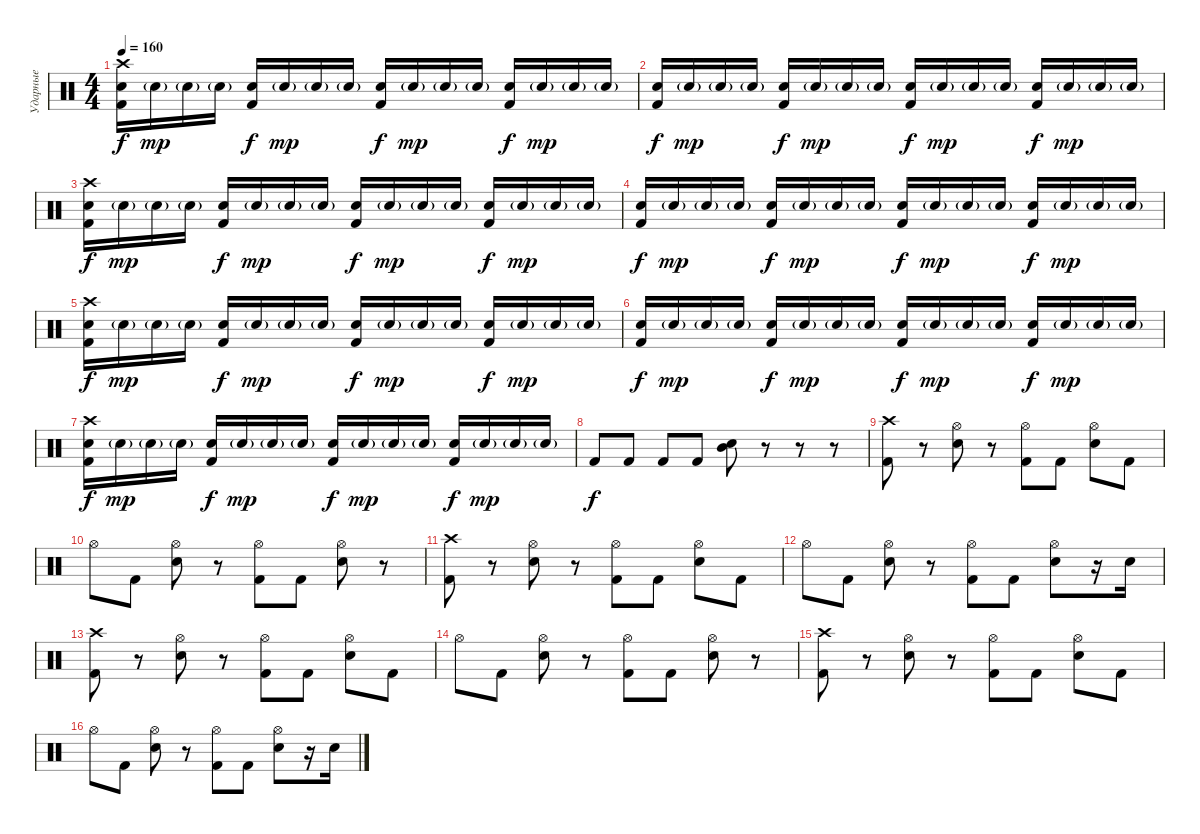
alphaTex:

\track ("Ударные" "Ударные") {instrument percussion}
\staff {score}
\articulation defaults
\ts (4 4)
\tempo 160
\clef neutral
\ks c
("Crash high (hit)" "Snare (hit) 2" "Kick (hit) 2").16{dy f} "Snare (hit) 2"{g}.16{dy mp} "Snare (hit) 2"{g}.16 "Snare (hit) 2"{g}.16 ("Snare (hit) 2" "Kick (hit) 2").16{dy f} "Snare (hit) 2"{g}.16{dy mp} "Snare (hit) 2"{g}.16 "Snare (hit) 2"{g}.16 ("Snare (hit) 2" "Kick (hit) 2").16{dy f} "Snare (hit) 2"{g}.16{dy mp} "Snare (hit) 2"{g}.16 "Snare (hit) 2"{g}.16 ("Snare (hit) 2" "Kick (hit) 2").16{dy f} "Snare (hit) 2"{g}.16{dy mp} "Snare (hit) 2"{g}.16 "Snare (hit) 2"{g}.16 |
("Snare (hit) 2" "Kick (hit) 2").16{dy f} "Snare (hit) 2"{g}.16{dy mp} "Snare (hit) 2"{g}.16 "Snare (hit) 2"{g}.16 ("Snare (hit) 2" "Kick (hit) 2").16{dy f} "Snare (hit) 2"{g}.16{dy mp} "Snare (hit) 2"{g}.16 "Snare (hit) 2"{g}.16 ("Snare (hit) 2" "Kick (hit) 2").16{dy f} "Snare (hit) 2"{g}.16{dy mp} "Snare (hit) 2"{g}.16 "Snare (hit) 2"{g}.16 ("Snare (hit) 2" "Kick (hit) 2").16{dy f} "Snare (hit) 2"{g}.16{dy mp} "Snare (hit) 2"{g}.16 "Snare (hit) 2"{g}.16 |
("Crash high (hit)" "Snare (hit) 2" "Kick (hit) 2").16{dy f} "Snare (hit) 2"{g}.16{dy mp} "Snare (hit) 2"{g}.16 "Snare (hit) 2"{g}.16 ("Snare (hit) 2" "Kick (hit) 2").16{dy f} "Snare (hit) 2"{g}.16{dy mp} "Snare (hit) 2"{g}.16 "Snare (hit) 2"{g}.16 ("Snare (hit) 2" "Kick (hit) 2").16{dy f} "Snare (hit) 2"{g}.16{dy mp} "Snare (hit) 2"{g}.16 "Snare (hit) 2"{g}.16 ("Snare (hit) 2" "Kick (hit) 2").16{dy f} "Snare (hit) 2"{g}.16{dy mp} "Snare (hit) 2"{g}.16 "Snare (hit) 2"{g}.16 |
("Snare (hit) 2" "Kick (hit) 2").16{dy f} "Snare (hit) 2"{g}.16{dy mp} "Snare (hit) 2"{g}.16 "Snare (hit) 2"{g}.16 ("Snare (hit) 2" "Kick (hit) 2").16{dy f} "Snare (hit) 2"{g}.16{dy mp} "Snare (hit) 2"{g}.16 "Snare (hit) 2"{g}.16 ("Snare (hit) 2" "Kick (hit) 2").16{dy f} "Snare (hit) 2"{g}.16{dy mp} "Snare (hit) 2"{g}.16 "Snare (hit) 2"{g}.16 ("Snare (hit) 2" "Kick (hit) 2").16{dy f} "Snare (hit) 2"{g}.16{dy mp} "Snare (hit) 2"{g}.16 "Snare (hit) 2"{g}.16 |
("Crash high (hit)" "Snare (hit) 2" "Kick (hit) 2").16{dy f} "Snare (hit) 2"{g}.16{dy mp} "Snare (hit) 2"{g}.16 "Snare (hit) 2"{g}.16 ("Snare (hit) 2" "Kick (hit) 2").16{dy f} "Snare (hit) 2"{g}.16{dy mp} "Snare (hit) 2"{g}.16 "Snare (hit) 2"{g}.16 ("Snare (hit) 2" "Kick (hit) 2").16{dy f} "Snare (hit) 2"{g}.16{dy mp} "Snare (hit) 2"{g}.16 "Snare (hit) 2"{g}.16 ("Snare (hit) 2" "Kick (hit) 2").16{dy f} "Snare (hit) 2"{g}.16{dy mp} "Snare (hit) 2"{g}.16 "Snare (hit) 2"{g}.16 |
("Snare (hit) 2" "Kick (hit) 2").16{dy f} "Snare (hit) 2"{g}.16{dy mp} "Snare (hit) 2"{g}.16 "Snare (hit) 2"{g}.16 ("Snare (hit) 2" "Kick (hit) 2").16{dy f} "Snare (hit) 2"{g}.16{dy mp} "Snare (hit) 2"{g}.16 "Snare (hit) 2"{g}.16 ("Snare (hit) 2" "Kick (hit) 2").16{dy f} "Snare (hit) 2"{g}.16{dy mp} "Snare (hit) 2"{g}.16 "Snare (hit) 2"{g}.16 ("Snare (hit) 2" "Kick (hit) 2").16{dy f} "Snare (hit) 2"{g}.16{dy mp} "Snare (hit) 2"{g}.16 "Snare (hit) 2"{g}.16 |
("Crash high (hit)" "Snare (hit) 2" "Kick (hit) 2").16{dy f} "Snare (hit) 2"{g}.16{dy mp} "Snare (hit) 2"{g}.16 "Snare (hit) 2"{g}.16 ("Snare (hit) 2" "Kick (hit) 2").16{dy f} "Snare (hit) 2"{g}.16{dy mp} "Snare (hit) 2"{g}.16 "Snare (hit) 2"{g}.16 ("Snare (hit) 2" "Kick (hit) 2").16{dy f} "Snare (hit) 2"{g}.16{dy mp} "Snare (hit) 2"{g}.16 "Snare (hit) 2"{g}.16 ("Snare (hit) 2" "Kick (hit) 2").16{dy f} "Snare (hit) 2"{g}.16{dy mp} "Snare (hit) 2"{g}.16 "Snare (hit) 2"{g}.16 |
"Kick (hit) 2".8{dy f} "Kick (hit) 2".8 "Kick (hit) 2".8 "Kick (hit) 2".8 ("Mid Tom (hit)" "Snare (hit) 2").8 r.8 r.8 r.8 |
("Crash high (hit)" "Kick (hit) 2").8 r.8 ("Hi-Hat (open)" "Snare (hit) 2").8 r.8 ("Hi-Hat (open)" "Kick (hit) 2").8 "Kick (hit) 2".8 ("Hi-Hat (open)" "Snare (hit) 2").8 "Kick (hit) 2".8 |
"Hi-Hat (open)".8 "Kick (hit) 2".8 ("Hi-Hat (open)" "Snare (hit) 2").8 r.8 ("Hi-Hat (open)" "Kick (hit) 2").8 "Kick (hit) 2".8 ("Hi-Hat (open)" "Snare (hit) 2").8 r.8 |
("Crash high (hit)" "Kick (hit) 2").8 r.8 ("Hi-Hat (open)" "Snare (hit) 2").8 r.8 ("Hi-Hat (open)" "Kick (hit) 2").8 "Kick (hit) 2".8 ("Hi-Hat (open)" "Snare (hit) 2").8 "Kick (hit) 2".8 |
"Hi-Hat (open)".8 "Kick (hit) 2".8 ("Hi-Hat (open)" "Snare (hit) 2").8 r.8 ("Hi-Hat (open)" "Kick (hit) 2").8 "Kick (hit) 2".8 ("Hi-Hat (open)" "Snare (hit) 2").8 r.16 "Electric Snare (hit)".16 |
("Crash high (hit)" "Kick (hit) 2").8 r.8 ("Hi-Hat (open)" "Snare (hit) 2").8 r.8 ("Hi-Hat (open)" "Kick (hit) 2").8 "Kick (hit) 2".8 ("Hi-Hat (open)" "Snare (hit) 2").8 "Kick (hit) 2".8 |
"Hi-Hat (open)".8 "Kick (hit) 2".8 ("Hi-Hat (open)" "Snare (hit) 2").8 r.8 ("Hi-Hat (open)" "Kick (hit) 2").8 "Kick (hit) 2".8 ("Hi-Hat (open)" "Snare (hit) 2").8 r.8 |
("Crash high (hit)" "Kick (hit) 2").8 r.8 ("Hi-Hat (open)" "Snare (hit) 2").8 r.8 ("Hi-Hat (open)" "Kick (hit) 2").8 "Kick (hit) 2".8 ("Hi-Hat (open)" "Snare (hit) 2").8 "Kick (hit) 2".8 |
"Hi-Hat (open)".8 "Kick (hit) 2".8 ("Hi-Hat (open)" "Snare (hit) 2").8 r.8 ("Hi-Hat (open)" "Kick (hit) 2").8 "Kick (hit) 2".8 ("Hi-Hat (open)" "Snare (hit) 2").8 r.16 "Electric Snare (hit)".16
